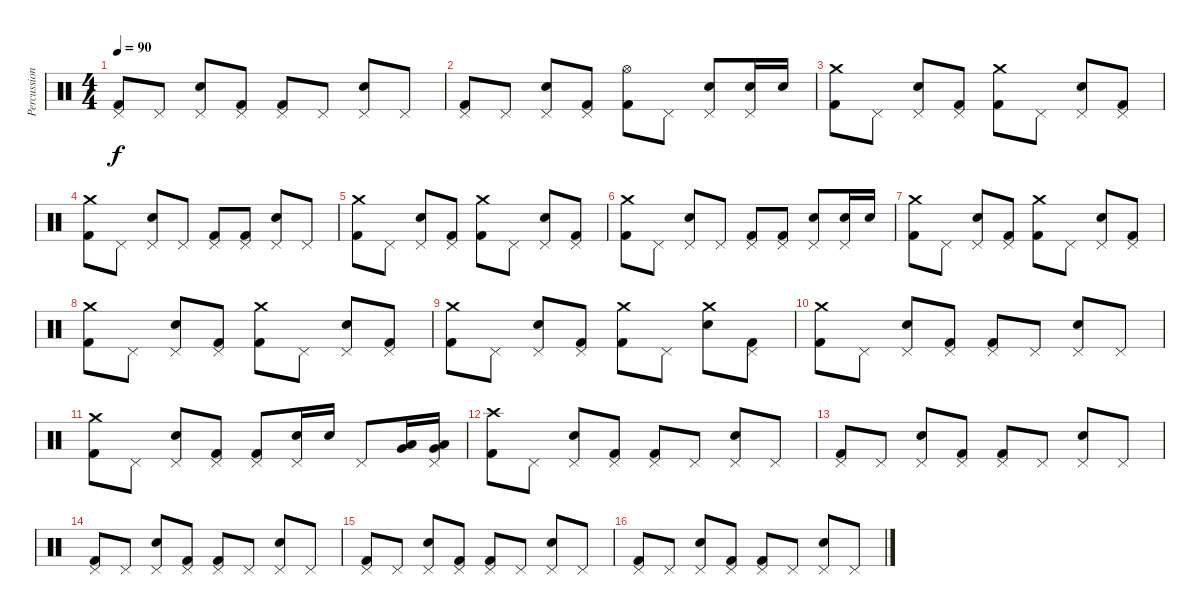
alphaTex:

\track ("Percussion" "Percussion") {instrument percussion}
\staff {score}
\articulation defaults
\ts (4 4)
\tempo 90
\clef neutral
\ks c
("Pedal Hi-Hat (hit)" "Kick (hit) 2").8{dy f} "Pedal Hi-Hat (hit)".8 ("Pedal Hi-Hat (hit)" "Snare (hit) 2").8 ("Pedal Hi-Hat (hit)" "Kick (hit) 2").8 ("Pedal Hi-Hat (hit)" "Kick (hit) 2").8 "Pedal Hi-Hat (hit)".8 ("Pedal Hi-Hat (hit)" "Snare (hit) 2").8 "Pedal Hi-Hat (hit)".8 |
("Pedal Hi-Hat (hit)" "Kick (hit) 2").8 "Pedal Hi-Hat (hit)".8 ("Pedal Hi-Hat (hit)" "Snare (hit) 2").8 ("Pedal Hi-Hat (hit)" "Kick (hit) 2").8 ("Hi-Hat (open)" "Kick (hit) 2").8 "Pedal Hi-Hat (hit)".8 ("Pedal Hi-Hat (hit)" "Snare (hit) 2").8 ("Pedal Hi-Hat (hit)" "Snare (hit) 2").16 "Snare (hit) 2".16 |
("Crash medium (hit)" "Kick (hit) 2").8 "Pedal Hi-Hat (hit)".8 ("Pedal Hi-Hat (hit)" "Snare (hit) 2").8 ("Pedal Hi-Hat (hit)" "Kick (hit) 2").8 ("Crash medium (hit)" "Kick (hit) 2").8 "Pedal Hi-Hat (hit)".8 ("Pedal Hi-Hat (hit)" "Snare (hit) 2").8 ("Pedal Hi-Hat (hit)" "Kick (hit) 2").8 |
("Crash medium (hit)" "Kick (hit) 2").8 "Pedal Hi-Hat (hit)".8 ("Pedal Hi-Hat (hit)" "Snare (hit) 2").8 "Pedal Hi-Hat (hit)".8 ("Pedal Hi-Hat (hit)" "Kick (hit) 2").8 ("Pedal Hi-Hat (hit)" "Kick (hit) 2").8 ("Pedal Hi-Hat (hit)" "Snare (hit) 2").8 "Pedal Hi-Hat (hit)".8 |
("Crash medium (hit)" "Kick (hit) 2").8 "Pedal Hi-Hat (hit)".8 ("Pedal Hi-Hat (hit)" "Snare (hit) 2").8 ("Pedal Hi-Hat (hit)" "Kick (hit) 2").8 ("Crash medium (hit)" "Kick (hit) 2").8 "Pedal Hi-Hat (hit)".8 ("Pedal Hi-Hat (hit)" "Snare (hit) 2").8 ("Pedal Hi-Hat (hit)" "Kick (hit) 2").8 |
("Crash medium (hit)" "Kick (hit) 2").8 "Pedal Hi-Hat (hit)".8 ("Pedal Hi-Hat (hit)" "Snare (hit) 2").8 "Pedal Hi-Hat (hit)".8 ("Pedal Hi-Hat (hit)" "Kick (hit) 2").8 ("Pedal Hi-Hat (hit)" "Kick (hit) 2").8 ("Pedal Hi-Hat (hit)" "Snare (hit) 2").8 ("Pedal Hi-Hat (hit)" "Snare (hit) 2").16 "Snare (hit) 2".16 |
("Crash medium (hit)" "Kick (hit) 2").8 "Pedal Hi-Hat (hit)".8 ("Pedal Hi-Hat (hit)" "Snare (hit) 2").8 ("Pedal Hi-Hat (hit)" "Kick (hit) 2").8 ("Crash medium (hit)" "Kick (hit) 2").8 "Pedal Hi-Hat (hit)".8 ("Pedal Hi-Hat (hit)" "Snare (hit) 2").8 ("Pedal Hi-Hat (hit)" "Kick (hit) 2").8 |
("Crash medium (hit)" "Kick (hit) 2").8 "Pedal Hi-Hat (hit)".8 ("Pedal Hi-Hat (hit)" "Snare (hit) 2").8 ("Pedal Hi-Hat (hit)" "Kick (hit) 2").8 ("Crash medium (hit)" "Kick (hit) 2").8 "Pedal Hi-Hat (hit)".8 ("Pedal Hi-Hat (hit)" "Snare (hit) 2").8 ("Pedal Hi-Hat (hit)" "Kick (hit) 2").8 |
("Crash medium (hit)" "Kick (hit) 2").8 "Pedal Hi-Hat (hit)".8 ("Pedal Hi-Hat (hit)" "Snare (hit) 2").8 ("Pedal Hi-Hat (hit)" "Kick (hit) 2").8 ("Crash medium (hit)" "Kick (hit) 2").8 "Pedal Hi-Hat (hit)".8 ("Crash medium (hit)" "Snare (hit) 2").8 ("Pedal Hi-Hat (hit)" "Kick (hit) 2").8 |
("Crash medium (hit)" "Kick (hit) 2").8 "Pedal Hi-Hat (hit)".8 ("Pedal Hi-Hat (hit)" "Snare (hit) 2").8 ("Pedal Hi-Hat (hit)" "Kick (hit) 2").8 ("Pedal Hi-Hat (hit)" "Kick (hit) 2").8 "Pedal Hi-Hat (hit)".8 ("Pedal Hi-Hat (hit)" "Snare (hit) 2").8 "Pedal Hi-Hat (hit)".8 |
("Crash medium (hit)" "Kick (hit) 2").8 "Pedal Hi-Hat (hit)".8 ("Pedal Hi-Hat (hit)" "Snare (hit) 2").8 ("Pedal Hi-Hat (hit)" "Kick (hit) 2").8 ("Pedal Hi-Hat (hit)" "Kick (hit) 2").8 ("Pedal Hi-Hat (hit)" "Snare (hit) 2").16 "Snare (hit) 2".16 "Pedal Hi-Hat (hit)".8 ("Low Tom (hit)" "Very Low Tom (hit)").16 ("Pedal Hi-Hat (hit)" "Low Tom (hit)" "Very Low Tom (hit)").16 |
("Crash high (hit)" "Kick (hit) 2").8 "Pedal Hi-Hat (hit)".8 ("Pedal Hi-Hat (hit)" "Snare (hit) 2").8 ("Pedal Hi-Hat (hit)" "Kick (hit) 2").8 ("Pedal Hi-Hat (hit)" "Kick (hit) 2").8 "Pedal Hi-Hat (hit)".8 ("Pedal Hi-Hat (hit)" "Snare (hit) 2").8 "Pedal Hi-Hat (hit)".8 |
("Pedal Hi-Hat (hit)" "Kick (hit) 2").8 "Pedal Hi-Hat (hit)".8 ("Pedal Hi-Hat (hit)" "Snare (hit) 2").8 ("Pedal Hi-Hat (hit)" "Kick (hit) 2").8 ("Pedal Hi-Hat (hit)" "Kick (hit) 2").8 "Pedal Hi-Hat (hit)".8 ("Pedal Hi-Hat (hit)" "Snare (hit) 2").8 "Pedal Hi-Hat (hit)".8 |
("Pedal Hi-Hat (hit)" "Kick (hit) 2").8 "Pedal Hi-Hat (hit)".8 ("Pedal Hi-Hat (hit)" "Snare (hit) 2").8 ("Pedal Hi-Hat (hit)" "Kick (hit) 2").8 ("Pedal Hi-Hat (hit)" "Kick (hit) 2").8 "Pedal Hi-Hat (hit)".8 ("Pedal Hi-Hat (hit)" "Snare (hit) 2").8 "Pedal Hi-Hat (hit)".8 |
("Pedal Hi-Hat (hit)" "Kick (hit) 2").8 "Pedal Hi-Hat (hit)".8 ("Pedal Hi-Hat (hit)" "Snare (hit) 2").8 ("Pedal Hi-Hat (hit)" "Kick (hit) 2").8 ("Pedal Hi-Hat (hit)" "Kick (hit) 2").8 "Pedal Hi-Hat (hit)".8 ("Pedal Hi-Hat (hit)" "Snare (hit) 2").8 "Pedal Hi-Hat (hit)".8 |
("Pedal Hi-Hat (hit)" "Kick (hit) 2").8 "Pedal Hi-Hat (hit)".8 ("Pedal Hi-Hat (hit)" "Snare (hit) 2").8 ("Pedal Hi-Hat (hit)" "Kick (hit) 2").8 ("Pedal Hi-Hat (hit)" "Kick (hit) 2").8 "Pedal Hi-Hat (hit)".8 ("Pedal Hi-Hat (hit)" "Snare (hit) 2").8 "Pedal Hi-Hat (hit)".8
